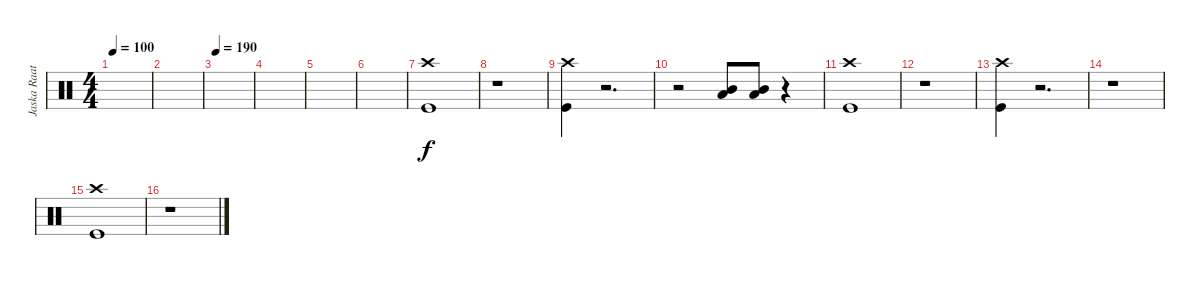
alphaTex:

\track ("Jaska Raatikainen" "Jaska Raat") {instrument percussion}
\staff {score}
\articulation defaults
\ts (4 4)
\tempo 100
\clef neutral
\ks c
|
|
\tempo 190
|
|
|
|
("Crash high (hit)" "Kick (hit)").1 |
r.1 |
("Crash high (hit)" "Kick (hit)").4 r.2{d} |
r.2 ("Mid Tom (hit)" "Low Tom (hit)").8 ("Mid Tom (hit)" "Low Tom (hit)").8 r.4 |
("Crash high (hit)" "Kick (hit)").1 |
r.1 |
("Crash high (hit)" "Kick (hit)").4 r.2{d} |
r.1 |
("Crash high (hit)" "Kick (hit)").1 |
r.1
